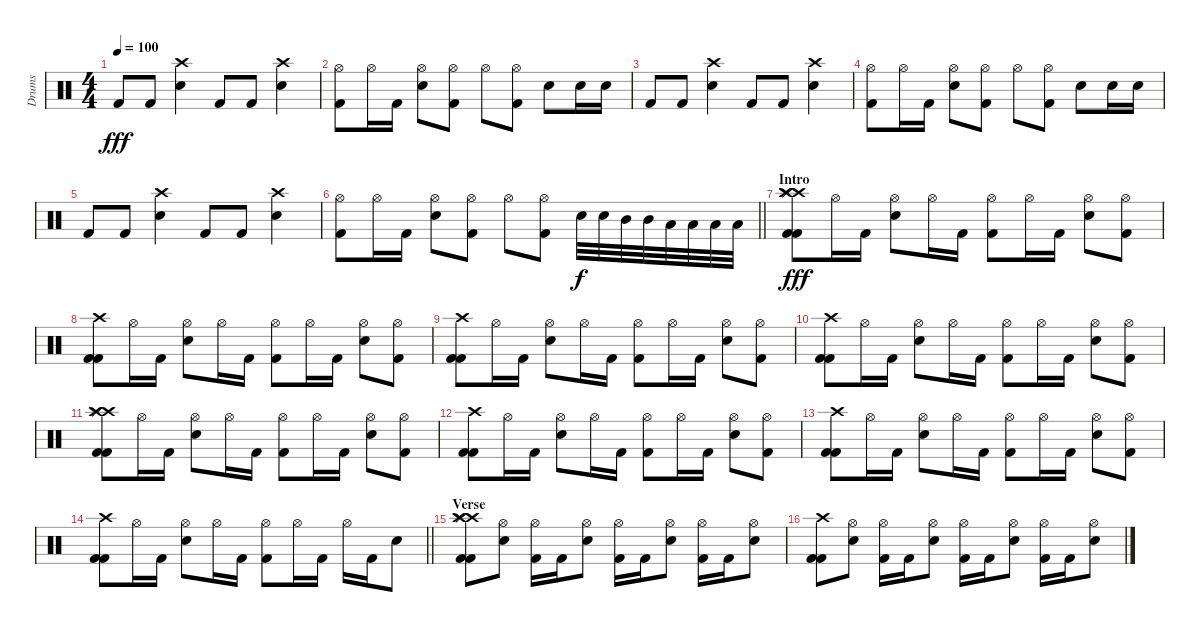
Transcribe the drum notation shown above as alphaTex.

\track ("Drums" "Drums") {instrument percussion}
\staff {score}
\articulation defaults
\ts (4 4)
\tempo 100
\clef neutral
\ks c "Kick (hit) 2".8{dy fff} "Kick (hit) 2".8
("Crash high (hit)" "Electric Snare (hit)").4 "Kick (hit) 2".8 "Kick (hit) 2".8 ("Crash high (hit)" "Electric Snare (hit)").4 |
("Hi-Hat (open)" "Kick (hit) 2").8 "Hi-Hat (open)".16 "Kick (hit) 2".16 ("Hi-Hat (open)" "Electric Snare (hit)").8 ("Hi-Hat (open)" "Kick (hit) 2").8 "Hi-Hat (open)".8 ("Hi-Hat (open)" "Kick (hit) 2").8 "Electric Snare (hit)".8 "Electric Snare (hit)".16 "Electric Snare (hit)".16 |
"Kick (hit) 2".8 "Kick (hit) 2".8 ("Crash high (hit)" "Electric Snare (hit)").4 "Kick (hit) 2".8 "Kick (hit) 2".8 ("Crash high (hit)" "Electric Snare (hit)").4 |
("Hi-Hat (open)" "Kick (hit) 2").8 "Hi-Hat (open)".16 "Kick (hit) 2".16 ("Hi-Hat (open)" "Electric Snare (hit)").8 ("Hi-Hat (open)" "Kick (hit) 2").8 "Hi-Hat (open)".8 ("Hi-Hat (open)" "Kick (hit) 2").8 "Electric Snare (hit)".8 "Electric Snare (hit)".16 "Electric Snare (hit)".16 |
"Kick (hit) 2".8 "Kick (hit) 2".8 ("Crash high (hit)" "Electric Snare (hit)").4 "Kick (hit) 2".8 "Kick (hit) 2".8 ("Crash high (hit)" "Electric Snare (hit)").4 |
\barLineRight lightlight
("Hi-Hat (open)" "Kick (hit) 2").8 "Hi-Hat (open)".16 "Kick (hit) 2".16 ("Hi-Hat (open)" "Electric Snare (hit)").8 ("Hi-Hat (open)" "Kick (hit) 2").8 "Hi-Hat (open)".8 ("Hi-Hat (open)" "Kick (hit) 2").8 "Electric Snare (hit)".32{dy f} "Electric Snare (hit)".32 "Mid Tom (hit)".32 "Mid Tom (hit)".32 "Low Tom (hit)".32 "Low Tom (hit)".32 "Low Floor Tom (hit)".32 "Low Floor Tom (hit)".32 |
\section ("" "Intro")
("Crash high (hit)" "Crash high (hit)" "Splash (hit)" "Splash (hit)" "Kick (hit) 2" "Kick (hit) 2").8{dy fff} "Hi-Hat (open)".16 "Kick (hit) 2".16 ("Hi-Hat (open)" "Electric Snare (hit)").8 "Hi-Hat (open)".16 "Kick (hit) 2".16 ("Hi-Hat (open)" "Kick (hit) 2").8 "Hi-Hat (open)".16 "Kick (hit) 2".16 ("Hi-Hat (open)" "Electric Snare (hit)").8 ("Hi-Hat (open)" "Kick (hit) 2").8 |
("Crash high (hit)" "Kick (hit) 2" "Kick (hit) 2").8 "Hi-Hat (open)".16 "Kick (hit) 2".16 ("Hi-Hat (open)" "Electric Snare (hit)").8 "Hi-Hat (open)".16 "Kick (hit) 2".16 ("Hi-Hat (open)" "Kick (hit) 2").8 "Hi-Hat (open)".16 "Kick (hit) 2".16 ("Hi-Hat (open)" "Electric Snare (hit)").8 ("Hi-Hat (open)" "Kick (hit) 2").8 |
("Crash high (hit)" "Kick (hit) 2" "Kick (hit) 2").8 "Hi-Hat (open)".16 "Kick (hit) 2".16 ("Hi-Hat (open)" "Electric Snare (hit)").8 "Hi-Hat (open)".16 "Kick (hit) 2".16 ("Hi-Hat (open)" "Kick (hit) 2").8 "Hi-Hat (open)".16 "Kick (hit) 2".16 ("Hi-Hat (open)" "Electric Snare (hit)").8 ("Hi-Hat (open)" "Kick (hit) 2").8 |
("Crash high (hit)" "Kick (hit) 2" "Kick (hit) 2").8 "Hi-Hat (open)".16 "Kick (hit) 2".16 ("Hi-Hat (open)" "Electric Snare (hit)").8 "Hi-Hat (open)".16 "Kick (hit) 2".16 ("Hi-Hat (open)" "Kick (hit) 2").8 "Hi-Hat (open)".16 "Kick (hit) 2".16 ("Hi-Hat (open)" "Electric Snare (hit)").8 ("Hi-Hat (open)" "Kick (hit) 2").8 |
("Crash high (hit)" "Crash high (hit)" "Splash (hit)" "Splash (hit)" "Kick (hit) 2" "Kick (hit) 2").8 "Hi-Hat (open)".16 "Kick (hit) 2".16 ("Hi-Hat (open)" "Electric Snare (hit)").8 "Hi-Hat (open)".16 "Kick (hit) 2".16 ("Hi-Hat (open)" "Kick (hit) 2").8 "Hi-Hat (open)".16 "Kick (hit) 2".16 ("Hi-Hat (open)" "Electric Snare (hit)").8 ("Hi-Hat (open)" "Kick (hit) 2").8 |
("Crash high (hit)" "Kick (hit) 2" "Kick (hit) 2").8 "Hi-Hat (open)".16 "Kick (hit) 2".16 ("Hi-Hat (open)" "Electric Snare (hit)").8 "Hi-Hat (open)".16 "Kick (hit) 2".16 ("Hi-Hat (open)" "Kick (hit) 2").8 "Hi-Hat (open)".16 "Kick (hit) 2".16 ("Hi-Hat (open)" "Electric Snare (hit)").8 ("Hi-Hat (open)" "Kick (hit) 2").8 |
("Crash high (hit)" "Kick (hit) 2" "Kick (hit) 2").8 "Hi-Hat (open)".16 "Kick (hit) 2".16 ("Hi-Hat (open)" "Electric Snare (hit)").8 "Hi-Hat (open)".16 "Kick (hit) 2".16 ("Hi-Hat (open)" "Kick (hit) 2").8 "Hi-Hat (open)".16 "Kick (hit) 2".16 ("Hi-Hat (open)" "Electric Snare (hit)").8 ("Hi-Hat (open)" "Kick (hit) 2").8 |
\barLineRight lightlight
("Crash high (hit)" "Kick (hit) 2" "Kick (hit) 2").8 "Hi-Hat (open)".16 "Kick (hit) 2".16 ("Hi-Hat (open)" "Electric Snare (hit)").8 "Hi-Hat (open)".16 "Kick (hit) 2".16 ("Hi-Hat (open)" "Kick (hit) 2").8 "Hi-Hat (open)".16 "Kick (hit) 2".16 "Hi-Hat (open)".16 "Kick (hit) 2".16 "Electric Snare (hit)".8 |
\section ("" "Verse")
("Crash high (hit)" "Crash high (hit)" "Splash (hit)" "Splash (hit)" "Kick (hit) 2" "Kick (hit) 2").8{volume 16} ("Hi-Hat (open)" "Electric Snare (hit)").8 ("Hi-Hat (open)" "Kick (hit) 2").16 "Kick (hit) 2".16 ("Hi-Hat (open)" "Electric Snare (hit)").8 ("Hi-Hat (open)" "Kick (hit) 2").16 "Kick (hit) 2".16 ("Hi-Hat (open)" "Electric Snare (hit)").8 ("Hi-Hat (open)" "Kick (hit) 2").16 "Kick (hit) 2".16 ("Hi-Hat (open)" "Electric Snare (hit)").8 |
("Crash high (hit)" "Kick (hit) 2" "Kick (hit) 2").8 ("Hi-Hat (open)" "Electric Snare (hit)").8 ("Hi-Hat (open)" "Kick (hit) 2").16 "Kick (hit) 2".16 ("Hi-Hat (open)" "Electric Snare (hit)").8 ("Hi-Hat (open)" "Kick (hit) 2").16 "Kick (hit) 2".16 ("Hi-Hat (open)" "Electric Snare (hit)").8 ("Hi-Hat (open)" "Kick (hit) 2").16 "Kick (hit) 2".16 ("Hi-Hat (open)" "Electric Snare (hit)").8
